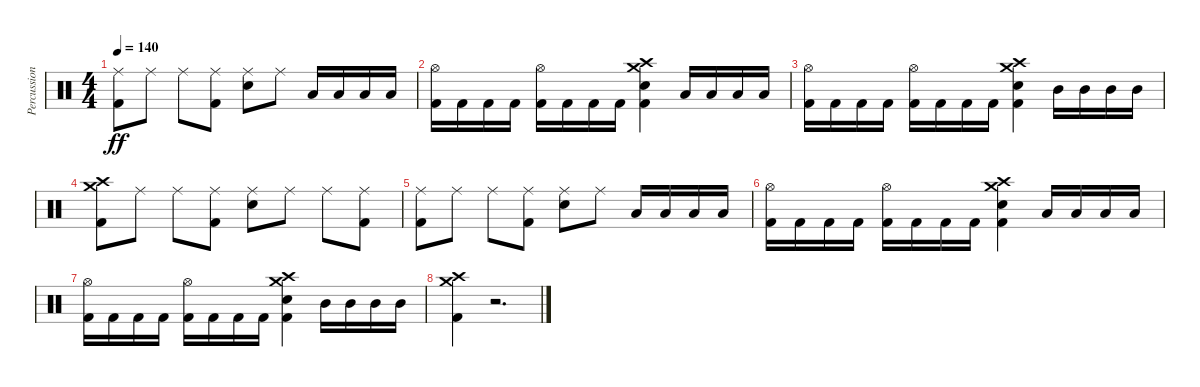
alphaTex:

\track ("Percussion" "Percussion") {instrument percussion}
\staff {score}
\articulation defaults
\ts (4 4)
\tempo 140
\clef neutral
\ks c
("Kick (hit) 2" "Ride (middle)").8{dy ff} "Ride (middle)".8 "Ride (middle)".8 ("Kick (hit) 2" "Ride (middle)").8 ("Electric Snare (hit)" "Ride (middle)").8 "Ride (middle)".8 "Low Floor Tom (hit)".16 "Low Floor Tom (hit)".16 "Low Floor Tom (hit)".16 "Low Floor Tom (hit)".16 |
("Kick (hit) 2" "Hi-Hat (open)").16 "Kick (hit) 2".16 "Kick (hit) 2".16 "Kick (hit) 2".16 ("Kick (hit) 2" "Hi-Hat (open)").16 "Kick (hit) 2".16 "Kick (hit) 2".16 "Kick (hit) 2".16 ("Kick (hit) 2" "Electric Snare (hit)" "Crash medium (hit)" "Crash high (hit)").4 "Low Tom (hit)".16 "Low Tom (hit)".16 "Low Tom (hit)".16 "Low Tom (hit)".16 |
("Kick (hit) 2" "Hi-Hat (open)").16 "Kick (hit) 2".16 "Kick (hit) 2".16 "Kick (hit) 2".16 ("Kick (hit) 2" "Hi-Hat (open)").16 "Kick (hit) 2".16 "Kick (hit) 2".16 "Kick (hit) 2".16 ("Kick (hit) 2" "Electric Snare (hit)" "Crash medium (hit)" "Crash high (hit)").4 "Mid Tom (hit)".16 "Mid Tom (hit)".16 "Mid Tom (hit)".16 "Mid Tom (hit)".16 |
("Kick (hit) 2" "Crash medium (hit)" "Crash high (hit)").8 "Ride (middle)".8 "Ride (middle)".8 ("Kick (hit) 2" "Ride (middle)").8 ("Electric Snare (hit)" "Ride (middle)").8 "Ride (middle)".8 "Ride (middle)".8 ("Kick (hit) 2" "Ride (middle)").8 |
("Kick (hit) 2" "Ride (middle)").8 "Ride (middle)".8 "Ride (middle)".8 ("Kick (hit) 2" "Ride (middle)").8 ("Electric Snare (hit)" "Ride (middle)").8 "Ride (middle)".8 "Low Floor Tom (hit)".16 "Low Floor Tom (hit)".16 "Low Floor Tom (hit)".16 "Low Floor Tom (hit)".16 |
("Kick (hit) 2" "Hi-Hat (open)").16 "Kick (hit) 2".16 "Kick (hit) 2".16 "Kick (hit) 2".16 ("Kick (hit) 2" "Hi-Hat (open)").16 "Kick (hit) 2".16 "Kick (hit) 2".16 "Kick (hit) 2".16 ("Kick (hit) 2" "Electric Snare (hit)" "Crash medium (hit)" "Crash high (hit)").4 "Low Tom (hit)".16 "Low Tom (hit)".16 "Low Tom (hit)".16 "Low Tom (hit)".16 |
("Kick (hit) 2" "Hi-Hat (open)").16 "Kick (hit) 2".16 "Kick (hit) 2".16 "Kick (hit) 2".16 ("Kick (hit) 2" "Hi-Hat (open)").16 "Kick (hit) 2".16 "Kick (hit) 2".16 "Kick (hit) 2".16 ("Kick (hit) 2" "Electric Snare (hit)" "Crash medium (hit)" "Crash high (hit)").4 "Mid Tom (hit)".16 "Mid Tom (hit)".16 "Mid Tom (hit)".16 "Mid Tom (hit)".16 |
("Kick (hit) 2" "Crash medium (hit)" "Crash high (hit)").4 r.2{d}
